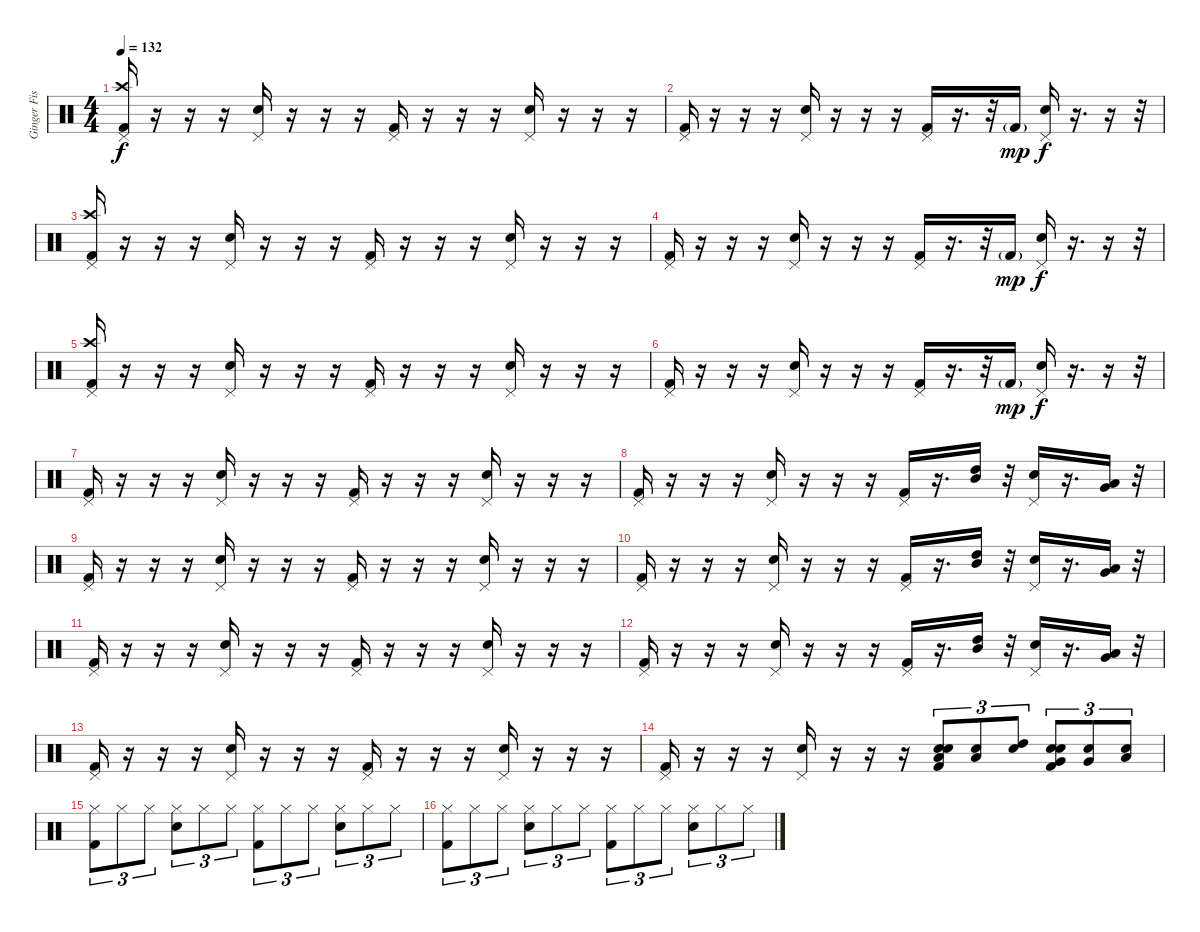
\track ("Ginger Fish" "Ginger Fis") {instrument percussion}
\staff {score}
\articulation defaults
\ts (4 4)
\tempo 132
\clef neutral
\ks c
("Pedal Hi-Hat (hit)" "Crash high (hit)" "Kick (hit) 2").16{dy f} r.16 r.16 r.16 ("Pedal Hi-Hat (hit)" "Electric Snare (hit)").16 r.16 r.16 r.16 ("Pedal Hi-Hat (hit)" "Kick (hit) 2").16 r.16 r.16 r.16 ("Pedal Hi-Hat (hit)" "Electric Snare (hit)").16 r.16 r.16 r.16 |
("Pedal Hi-Hat (hit)" "Kick (hit) 2").16 r.16 r.16 r.16 ("Pedal Hi-Hat (hit)" "Electric Snare (hit)").16 r.16 r.16 r.16 ("Pedal Hi-Hat (hit)" "Kick (hit) 2").16 r.16{d} r.32 "Kick (hit) 2"{g}.16{dy mp} ("Pedal Hi-Hat (hit)" "Electric Snare (hit)").16{dy f} r.16{d} r.16 r.32 |
("Pedal Hi-Hat (hit)" "Crash high (hit)" "Kick (hit) 2").16 r.16 r.16 r.16 ("Pedal Hi-Hat (hit)" "Electric Snare (hit)").16 r.16 r.16 r.16 ("Pedal Hi-Hat (hit)" "Kick (hit) 2").16 r.16 r.16 r.16 ("Pedal Hi-Hat (hit)" "Electric Snare (hit)").16 r.16 r.16 r.16 |
("Pedal Hi-Hat (hit)" "Kick (hit) 2").16 r.16 r.16 r.16 ("Pedal Hi-Hat (hit)" "Electric Snare (hit)").16 r.16 r.16 r.16 ("Pedal Hi-Hat (hit)" "Kick (hit) 2").16 r.16{d} r.32 "Kick (hit) 2"{g}.16{dy mp} ("Pedal Hi-Hat (hit)" "Electric Snare (hit)").16{dy f} r.16{d} r.16 r.32 |
("Pedal Hi-Hat (hit)" "Crash high (hit)" "Kick (hit) 2").16 r.16 r.16 r.16 ("Pedal Hi-Hat (hit)" "Electric Snare (hit)").16 r.16 r.16 r.16 ("Pedal Hi-Hat (hit)" "Kick (hit) 2").16 r.16 r.16 r.16 ("Pedal Hi-Hat (hit)" "Electric Snare (hit)").16 r.16 r.16 r.16 |
("Pedal Hi-Hat (hit)" "Kick (hit) 2").16 r.16 r.16 r.16 ("Pedal Hi-Hat (hit)" "Electric Snare (hit)").16 r.16 r.16 r.16 ("Pedal Hi-Hat (hit)" "Kick (hit) 2").16 r.16{d} r.32 "Kick (hit) 2"{g}.16{dy mp} ("Pedal Hi-Hat (hit)" "Electric Snare (hit)").16{dy f} r.16{d} r.16 r.32 |
("Pedal Hi-Hat (hit)" "Kick (hit) 2").16 r.16 r.16 r.16 ("Pedal Hi-Hat (hit)" "Snare (hit) 2").16 r.16 r.16 r.16 ("Pedal Hi-Hat (hit)" "Kick (hit) 2").16 r.16 r.16 r.16 ("Pedal Hi-Hat (hit)" "Snare (hit) 2").16 r.16 r.16 r.16 |
("Pedal Hi-Hat (hit)" "Kick (hit) 2").16 r.16 r.16 r.16 ("Pedal Hi-Hat (hit)" "Snare (hit) 2").16 r.16 r.16 r.16 ("Pedal Hi-Hat (hit)" "Kick (hit) 2").16 r.16{d} ("High Tom (hit)" "Mid Tom (hit)").16 r.32 ("Pedal Hi-Hat (hit)" "Snare (hit) 2").16 r.16{d} ("Very Low Tom (hit)" "Low Tom (hit)").16 r.32 |
("Pedal Hi-Hat (hit)" "Kick (hit) 2").16 r.16 r.16 r.16 ("Pedal Hi-Hat (hit)" "Snare (hit) 2").16 r.16 r.16 r.16 ("Pedal Hi-Hat (hit)" "Kick (hit) 2").16 r.16 r.16 r.16 ("Pedal Hi-Hat (hit)" "Snare (hit) 2").16 r.16 r.16 r.16 |
("Pedal Hi-Hat (hit)" "Kick (hit) 2").16 r.16 r.16 r.16 ("Pedal Hi-Hat (hit)" "Snare (hit) 2").16 r.16 r.16 r.16 ("Pedal Hi-Hat (hit)" "Kick (hit) 2").16 r.16{d} ("High Tom (hit)" "Mid Tom (hit)").16 r.32 ("Pedal Hi-Hat (hit)" "Snare (hit) 2").16 r.16{d} ("Very Low Tom (hit)" "Low Tom (hit)").16 r.32 |
("Pedal Hi-Hat (hit)" "Kick (hit) 2").16 r.16 r.16 r.16 ("Pedal Hi-Hat (hit)" "Snare (hit) 2").16 r.16 r.16 r.16 ("Pedal Hi-Hat (hit)" "Kick (hit) 2").16 r.16 r.16 r.16 ("Pedal Hi-Hat (hit)" "Snare (hit) 2").16 r.16 r.16 r.16 |
("Pedal Hi-Hat (hit)" "Kick (hit) 2").16 r.16 r.16 r.16 ("Pedal Hi-Hat (hit)" "Snare (hit) 2").16 r.16 r.16 r.16 ("Pedal Hi-Hat (hit)" "Kick (hit) 2").16 r.16{d} ("High Tom (hit)" "Mid Tom (hit)").16 r.32 ("Pedal Hi-Hat (hit)" "Snare (hit) 2").16 r.16{d} ("Very Low Tom (hit)" "Low Tom (hit)").16 r.32 |
("Pedal Hi-Hat (hit)" "Kick (hit) 2").16 r.16 r.16 r.16 ("Pedal Hi-Hat (hit)" "Snare (hit) 2").16 r.16 r.16 r.16 ("Pedal Hi-Hat (hit)" "Kick (hit) 2").16 r.16 r.16 r.16 ("Pedal Hi-Hat (hit)" "Snare (hit) 2").16 r.16 r.16 r.16 |
("Pedal Hi-Hat (hit)" "Kick (hit) 2").16 r.16 r.16 r.16 ("Pedal Hi-Hat (hit)" "Snare (hit) 2").16 r.16 r.16 r.16 ("Snare (hit) 2" "Low Tom (hit)" "Electric Snare (hit)" "Kick (hit) 2").8{tu (3 2)} ("Low Tom (hit)" "Electric Snare (hit)").8{tu (3 2)} ("High Tom (hit)" "Electric Snare (hit)").8{tu (3 2)} ("Snare (hit) 2" "Very Low Tom (hit)" "Electric Snare (hit)" "Kick (hit) 2").8{tu (3 2)} ("Very Low Tom (hit)" "Electric Snare (hit)").8{tu (3 2)} ("Low Floor Tom (hit)" "Electric Snare (hit)").8{tu (3 2)} |
("Hi-Hat (closed)" "Kick (hit) 2").8{tu (3 2)} "Hi-Hat (closed)".8{tu (3 2)} "Hi-Hat (closed)".8{tu (3 2)} ("Hi-Hat (closed)" "Snare (hit) 2").8{tu (3 2)} "Hi-Hat (closed)".8{tu (3 2)} "Hi-Hat (closed)".8{tu (3 2)} ("Hi-Hat (closed)" "Kick (hit) 2").8{tu (3 2)} "Hi-Hat (closed)".8{tu (3 2)} "Hi-Hat (closed)".8{tu (3 2)} ("Hi-Hat (closed)" "Snare (hit) 2").8{tu (3 2)} "Hi-Hat (closed)".8{tu (3 2)} "Hi-Hat (closed)".8{tu (3 2)} |
("Hi-Hat (closed)" "Kick (hit) 2").8{tu (3 2)} "Hi-Hat (closed)".8{tu (3 2)} "Hi-Hat (closed)".8{tu (3 2)} ("Hi-Hat (closed)" "Snare (hit) 2").8{tu (3 2)} "Hi-Hat (closed)".8{tu (3 2)} "Hi-Hat (closed)".8{tu (3 2)} ("Hi-Hat (closed)" "Kick (hit) 2").8{tu (3 2)} "Hi-Hat (closed)".8{tu (3 2)} "Hi-Hat (closed)".8{tu (3 2)} ("Hi-Hat (closed)" "Snare (hit) 2").8{tu (3 2)} "Hi-Hat (closed)".8{tu (3 2)} "Hi-Hat (closed)".8{tu (3 2)}
